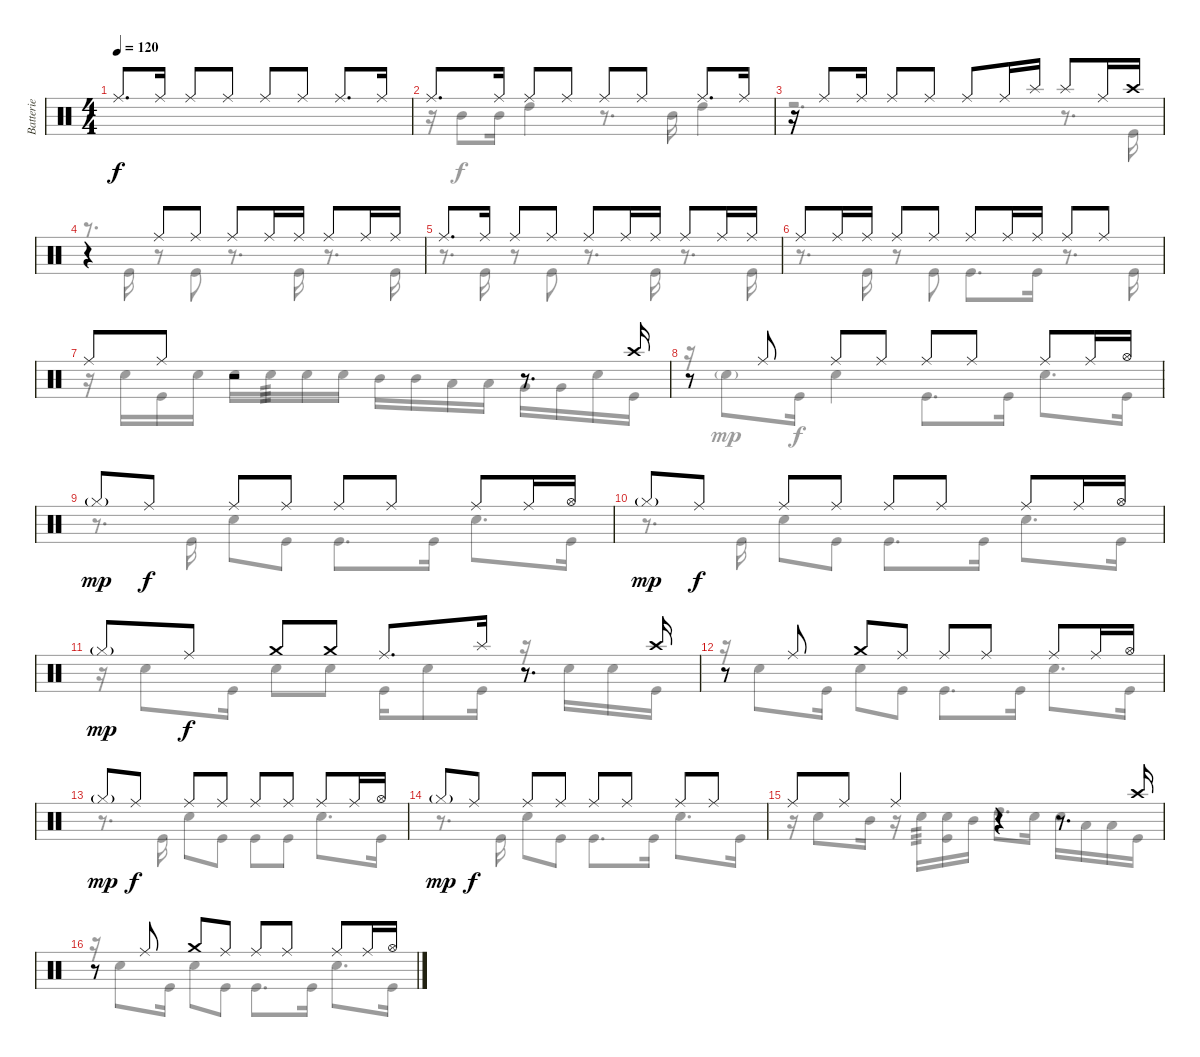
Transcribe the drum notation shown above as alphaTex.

\track ("Batterie" "Batterie") {instrument percussion}
\staff {score}
\articulation defaults
\voice
\ts (4 4)
\tempo 120
\clef neutral
\ks c "Ride (middle)".8{d dy f beam Up} "Ride (middle)".16{beam Up} "Ride (middle)".8{beam Up} "Ride (middle)".8{beam Up} "Ride (middle)".8{beam Up} "Ride (middle)".8{beam Up} "Ride (middle)".8{d beam Up} "Ride (middle)".16{beam Up}
|
"Ride (middle)".8{d} "Ride (middle)".16 "Ride (middle)".8 "Ride (middle)".8 "Ride (middle)".8 "Ride (middle)".8 "Ride (middle)".8{d} "Ride (middle)".16 |
r.16 "Ride (middle)".8 "Ride (middle)".16 "Ride (middle)".8 "Ride (middle)".8 "Ride (middle)".8 "Ride (middle)".16 "Splash (hit)".16 "Splash (hit)".8 "Ride (middle)".16 "Crash high (hit)".16 |
r.4 "Ride (middle)".8 "Ride (middle)".8 "Ride (middle)".8 "Ride (middle)".16 "Ride (middle)".16 "Ride (middle)".8 "Ride (middle)".16 "Ride (middle)".16 |
"Ride (middle)".8{d} "Ride (middle)".16 "Ride (middle)".8 "Ride (middle)".8 "Ride (middle)".8 "Ride (middle)".16 "Ride (middle)".16 "Ride (middle)".8 "Ride (middle)".16 "Ride (middle)".16 |
"Ride (middle)".8 "Ride (middle)".16 "Ride (middle)".16 "Ride (middle)".8 "Ride (middle)".8 "Ride (middle)".8 "Ride (middle)".16 "Ride (middle)".16 "Ride (middle)".8 "Ride (middle)".8 |
"Ride (middle)".8 "Ride (middle)".8 r.2 r.8{d} "Crash high (hit)".16 |
r.8 "Ride (middle)".8 "Ride (middle)".8 "Ride (middle)".8 "Ride (middle)".8 "Ride (middle)".8 "Ride (middle)".8 "Ride (middle)".16 "Hi-Hat (open)".16 |
"Hi-Hat (closed)"{g}.8{dy mp} "Ride (middle)".8{dy f} "Ride (middle)".8 "Ride (middle)".8 "Ride (middle)".8 "Ride (middle)".8 "Ride (middle)".8 "Ride (middle)".16 "Hi-Hat (open)".16 |
"Hi-Hat (closed)"{g}.8{dy mp} "Ride (middle)".8{dy f} "Ride (middle)".8 "Ride (middle)".8 "Ride (middle)".8 "Ride (middle)".8 "Ride (middle)".8 "Ride (middle)".16 "Hi-Hat (open)".16 |
"Hi-Hat (closed)"{g}.8{dy mp} "Ride (middle)".8{dy f} "Crash medium (hit)".8 "Crash medium (hit)".8 "Ride (middle)".8{d} "Splash (hit)".16 r.8{d} "Crash high (hit)".16 |
r.8 "Ride (middle)".8 "Crash medium (hit)".8 "Ride (middle)".8 "Ride (middle)".8 "Ride (middle)".8 "Ride (middle)".8 "Ride (middle)".16 "Hi-Hat (open)".16 |
"Hi-Hat (closed)"{g}.8{dy mp} "Ride (middle)".8{dy f} "Ride (middle)".8 "Ride (middle)".8 "Ride (middle)".8 "Ride (middle)".8 "Ride (middle)".8 "Ride (middle)".16 "Hi-Hat (open)".16 |
"Hi-Hat (closed)"{g}.8{dy mp} "Ride (middle)".8{dy f} "Ride (middle)".8 "Ride (middle)".8 "Ride (middle)".8 "Ride (middle)".8 "Ride (middle)".8 "Ride (middle)".8 |
"Ride (middle)".8 "Ride (middle)".8 "Ride (middle)".4 r.4 r.8{d} "Crash high (hit)".16 |
r.8 "Ride (middle)".8 "Crash medium (hit)".8 "Ride (middle)".8 "Ride (middle)".8 "Ride (middle)".8 "Ride (middle)".8 "Ride (middle)".16 "Hi-Hat (open)".16
\voice
\clef neutral
\ottava regular
\simile none
\ks c
|
r.16 "Mid Tom (hit)".8 "Mid Tom (hit)".16 "High Tom (hit)".4 r.8{d} "Mid Tom (hit)".16 "High Tom (hit)".4 |
r.2{d} r.8{d} "Kick (hit)".16 |
r.8{d} "Kick (hit)".16 r.8 "Kick (hit)".8 r.8{d} "Kick (hit)".16 r.8{d} "Kick (hit)".16 |
r.8{d} "Kick (hit)".16 r.8 "Kick (hit)".8 r.8{d} "Kick (hit)".16 r.8{d} "Kick (hit)".16 |
r.8{d} "Kick (hit)".16 r.8 "Kick (hit)".8 "Kick (hit)".8{d} "Kick (hit)".16 r.8{d} "Kick (hit)".16 |
r.16 "Snare (hit) 2".16 "Kick (hit)".16 "Snare (hit) 2".16 "Snare (hit) 2".16 "Snare (hit) 2".16{tp 3} "Snare (hit) 2".16 "Snare (hit) 2".16 "Mid Tom (hit)".16 "Mid Tom (hit)".16 "Low Tom (hit)".16 "Low Tom (hit)".16 "Very Low Tom (hit)".16 "Very Low Tom (hit)".16 "Snare (hit) 2".16 "Kick (hit)".16 |
r.16 "Snare (hit) 2"{g}.8{dy mp} "Kick (hit)".16{dy f} "Snare (hit) 2".4 "Kick (hit)".8{d} "Kick (hit)".16 "Snare (hit) 2".8{d} "Kick (hit)".16 |
r.8{d} "Kick (hit)".16 "Snare (hit) 2".8 "Kick (hit)".8 "Kick (hit)".8{d} "Kick (hit)".16 "Snare (hit) 2".8{d} "Kick (hit)".16 |
r.8{d} "Kick (hit)".16 "Snare (hit) 2".8 "Kick (hit)".8 "Kick (hit)".8{d} "Kick (hit)".16 "Snare (hit) 2".8{d} "Kick (hit)".16 |
r.16 "Snare (hit) 2".8 "Kick (hit)".16 "Snare (hit) 2".8 "Snare (hit) 2".8 "Kick (hit)".16 "Snare (hit) 2".8 "Kick (hit)".16 r.16 "Snare (hit) 2".16 "Snare (hit) 2".16 "Kick (hit)".16 |
r.16 "Snare (hit) 2".8 "Kick (hit)".16 "Snare (hit) 2".8 "Kick (hit)".8 "Kick (hit)".8{d} "Kick (hit)".16 "Snare (hit) 2".8{d} "Kick (hit)".16 |
r.8{d} "Kick (hit)".16 "Snare (hit) 2".8 "Kick (hit)".8 "Kick (hit)".8 "Kick (hit)".8 "Snare (hit) 2".8{d} "Kick (hit)".16 |
r.8{d} "Kick (hit)".16 "Snare (hit) 2".8 "Kick (hit)".8 "Kick (hit)".8{d} "Kick (hit)".16 "Snare (hit) 2".8{d} "Kick (hit)".16 |
r.16 "Snare (hit) 2".8 "Mid Tom (hit)".16 r.16 "Snare (hit) 2".16{tp 3} ("Snare (hit) 2" "Kick (hit)").16 "Mid Tom (hit)".16 "High Tom (hit)".8{d} "Snare (hit) 2".16 "Snare (hit) 2".16 "Low Tom (hit)".16 "Low Tom (hit)".16 "Kick (hit)".16 |
r.16 "Snare (hit) 2".8 "Kick (hit)".16 "Snare (hit) 2".8 "Kick (hit)".8 "Kick (hit)".8{d} "Kick (hit)".16 "Snare (hit) 2".8{d} "Kick (hit)".16
